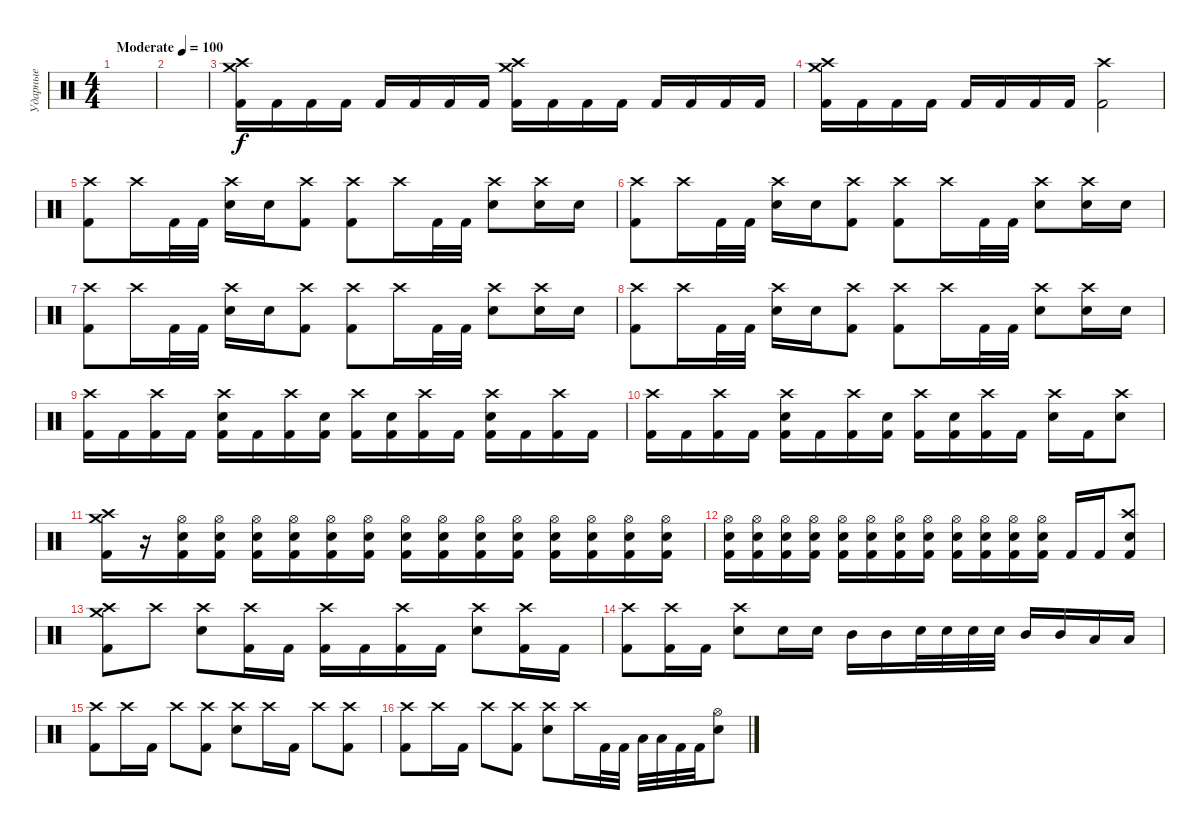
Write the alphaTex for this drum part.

\track ("Ударные" "Ударные") {instrument percussion}
\staff {score}
\articulation defaults
\ts (4 4)
\tempo (100 "Moderate")
\clef neutral
\ks c
|
|
("Kick (hit) 2" "Crash medium (hit)" "Crash high (hit)").16 "Kick (hit) 2".16 "Kick (hit) 2".16 "Kick (hit) 2".16 "Kick (hit) 2".16 "Kick (hit) 2".16 "Kick (hit) 2".16 "Kick (hit) 2".16 ("Kick (hit) 2" "Crash medium (hit)" "Crash high (hit)").16 "Kick (hit) 2".16 "Kick (hit) 2".16 "Kick (hit) 2".16 "Kick (hit) 2".16 "Kick (hit) 2".16 "Kick (hit) 2".16 "Kick (hit) 2".16 |
("Kick (hit) 2" "Crash medium (hit)" "Crash high (hit)").16 "Kick (hit) 2".16 "Kick (hit) 2".16 "Kick (hit) 2".16 "Kick (hit) 2".16 "Kick (hit) 2".16 "Kick (hit) 2".16 "Kick (hit) 2".16 ("Kick (hit) 2" "Crash high (hit)").2 |
("Crash high (hit)" "Kick (hit) 2").8 "Crash high (hit)".16 "Kick (hit) 2".32 "Kick (hit) 2".32 ("Snare (hit) 2" "Crash high (hit)").16 "Snare (hit) 2".16 ("Kick (hit) 2" "Crash high (hit)").8 ("Crash high (hit)" "Kick (hit) 2").8 "Crash high (hit)".16 "Kick (hit) 2".32 "Kick (hit) 2".32 ("Crash high (hit)" "Snare (hit) 2").8 ("Crash high (hit)" "Snare (hit) 2").16 "Snare (hit) 2".16 |
("Crash high (hit)" "Kick (hit) 2").8 "Crash high (hit)".16 "Kick (hit) 2".32 "Kick (hit) 2".32 ("Snare (hit) 2" "Crash high (hit)").16 "Snare (hit) 2".16 ("Kick (hit) 2" "Crash high (hit)").8 ("Crash high (hit)" "Kick (hit) 2").8 "Crash high (hit)".16 "Kick (hit) 2".32 "Kick (hit) 2".32 ("Crash high (hit)" "Snare (hit) 2").8 ("Crash high (hit)" "Snare (hit) 2").16 "Snare (hit) 2".16 |
("Crash high (hit)" "Kick (hit) 2").8 "Crash high (hit)".16 "Kick (hit) 2".32 "Kick (hit) 2".32 ("Snare (hit) 2" "Crash high (hit)").16 "Snare (hit) 2".16 ("Kick (hit) 2" "Crash high (hit)").8 ("Crash high (hit)" "Kick (hit) 2").8 "Crash high (hit)".16 "Kick (hit) 2".32 "Kick (hit) 2".32 ("Crash high (hit)" "Snare (hit) 2").8 ("Crash high (hit)" "Snare (hit) 2").16 "Snare (hit) 2".16 |
("Crash high (hit)" "Kick (hit) 2").8 "Crash high (hit)".16 "Kick (hit) 2".32 "Kick (hit) 2".32 ("Snare (hit) 2" "Crash high (hit)").16 "Snare (hit) 2".16 ("Kick (hit) 2" "Crash high (hit)").8 ("Crash high (hit)" "Kick (hit) 2").8 "Crash high (hit)".16 "Kick (hit) 2".32 "Kick (hit) 2".32 ("Crash high (hit)" "Snare (hit) 2").8 ("Crash high (hit)" "Snare (hit) 2").16 "Snare (hit) 2".16 |
("Kick (hit) 2" "Crash high (hit)").16 "Kick (hit) 2".16 ("Kick (hit) 2" "Crash high (hit)").16 "Kick (hit) 2".16 ("Kick (hit) 2" "Snare (hit) 2" "Crash high (hit)").16 "Kick (hit) 2".16 ("Kick (hit) 2" "Crash high (hit)").16 ("Snare (hit) 2" "Kick (hit) 2").16 ("Kick (hit) 2" "Crash high (hit)").16 ("Snare (hit) 2" "Kick (hit) 2").16 ("Kick (hit) 2" "Crash high (hit)").16 "Kick (hit) 2".16 ("Kick (hit) 2" "Snare (hit) 2" "Crash high (hit)").16 "Kick (hit) 2".16 ("Kick (hit) 2" "Crash high (hit)").16 "Kick (hit) 2".16 |
("Kick (hit) 2" "Crash high (hit)").16 "Kick (hit) 2".16 ("Kick (hit) 2" "Crash high (hit)").16 "Kick (hit) 2".16 ("Kick (hit) 2" "Snare (hit) 2" "Crash high (hit)").16 "Kick (hit) 2".16 ("Kick (hit) 2" "Crash high (hit)").16 ("Snare (hit) 2" "Kick (hit) 2").16 ("Kick (hit) 2" "Crash high (hit)").16 ("Snare (hit) 2" "Kick (hit) 2").16 ("Kick (hit) 2" "Crash high (hit)").16 "Kick (hit) 2".16 ("Snare (hit) 2" "Crash high (hit)").16 "Kick (hit) 2".16 ("Snare (hit) 2" "Crash high (hit)").8 |
("Kick (hit) 2" "Crash medium (hit)" "Crash high (hit)").16 r.16 ("Kick (hit) 2" "Snare (hit) 2" "Hi-Hat (open)").16 ("Kick (hit) 2" "Snare (hit) 2" "Hi-Hat (open)").16 ("Kick (hit) 2" "Snare (hit) 2" "Hi-Hat (open)").16 ("Kick (hit) 2" "Snare (hit) 2" "Hi-Hat (open)").16 ("Kick (hit) 2" "Snare (hit) 2" "Hi-Hat (open)").16 ("Kick (hit) 2" "Snare (hit) 2" "Hi-Hat (open)").16 ("Kick (hit) 2" "Snare (hit) 2" "Hi-Hat (open)").16 ("Kick (hit) 2" "Snare (hit) 2" "Hi-Hat (open)").16 ("Kick (hit) 2" "Snare (hit) 2" "Hi-Hat (open)").16 ("Kick (hit) 2" "Snare (hit) 2" "Hi-Hat (open)").16 ("Kick (hit) 2" "Snare (hit) 2" "Hi-Hat (open)").16 ("Kick (hit) 2" "Snare (hit) 2" "Hi-Hat (open)").16 ("Kick (hit) 2" "Snare (hit) 2" "Hi-Hat (open)").16 ("Kick (hit) 2" "Snare (hit) 2" "Hi-Hat (open)").16 |
("Kick (hit) 2" "Snare (hit) 2" "Hi-Hat (open)").16 ("Snare (hit) 2" "Kick (hit) 2" "Hi-Hat (open)").16 ("Snare (hit) 2" "Kick (hit) 2" "Hi-Hat (open)").16 ("Snare (hit) 2" "Kick (hit) 2" "Hi-Hat (open)").16 ("Kick (hit) 2" "Snare (hit) 2" "Hi-Hat (open)").16 ("Kick (hit) 2" "Snare (hit) 2" "Hi-Hat (open)").16 ("Kick (hit) 2" "Snare (hit) 2" "Hi-Hat (open)").16 ("Kick (hit) 2" "Snare (hit) 2" "Hi-Hat (open)").16 ("Kick (hit) 2" "Snare (hit) 2" "Hi-Hat (open)").16 ("Kick (hit) 2" "Snare (hit) 2" "Hi-Hat (open)").16 ("Kick (hit) 2" "Snare (hit) 2" "Hi-Hat (open)").16 ("Kick (hit) 2" "Snare (hit) 2" "Hi-Hat (open)").16 "Kick (hit) 2".16 "Kick (hit) 2".16 ("Kick (hit) 2" "Snare (hit) 2" "Crash high (hit)").8 |
("Kick (hit) 2" "Crash high (hit)" "Crash medium (hit)").8 "Crash high (hit)".8 ("Crash high (hit)" "Snare (hit) 2").8 ("Crash high (hit)" "Kick (hit) 2").16 "Kick (hit) 2".16 ("Kick (hit) 2" "Crash high (hit)").16 "Kick (hit) 2".16 ("Kick (hit) 2" "Crash high (hit)").16 "Kick (hit) 2".16 ("Snare (hit) 2" "Crash high (hit)").8 ("Crash high (hit)" "Kick (hit) 2").16 "Kick (hit) 2".16 |
("Kick (hit) 2" "Crash high (hit)").8 ("Kick (hit) 2" "Crash high (hit)").16 "Kick (hit) 2".16 ("Crash high (hit)" "Snare (hit) 2").8 "Snare (hit) 2".16 "Snare (hit) 2".16 "Mid Tom (hit)".16 "Mid Tom (hit)".16 "Snare (hit) 2".32 "Snare (hit) 2".32 "Snare (hit) 2".32 "Snare (hit) 2".32 "Mid Tom (hit)".16 "Mid Tom (hit)".16 "Low Tom (hit)".16 "Low Tom (hit)".16 |
("Crash high (hit)" "Kick (hit) 2").8 "Crash high (hit)".16 "Kick (hit) 2".16 "Crash high (hit)".8 ("Crash high (hit)" "Kick (hit) 2").8 ("Crash high (hit)" "Snare (hit) 2").8 "Crash high (hit)".16 "Kick (hit) 2".16 "Crash high (hit)".8 ("Kick (hit) 2" "Crash high (hit)").8 |
("Crash high (hit)" "Kick (hit) 2").8 "Crash high (hit)".16 "Kick (hit) 2".16 "Crash high (hit)".8 ("Crash high (hit)" "Kick (hit) 2").8 ("Crash high (hit)" "Snare (hit) 2").8 "Crash high (hit)".16 "Kick (hit) 2".32 "Kick (hit) 2".32 "Low Tom (hit)".32 "Low Floor Tom (hit)".32 "Kick (hit) 2".32 "Kick (hit) 2".32 ("Hi-Hat (open)" "Snare (hit) 2").8
